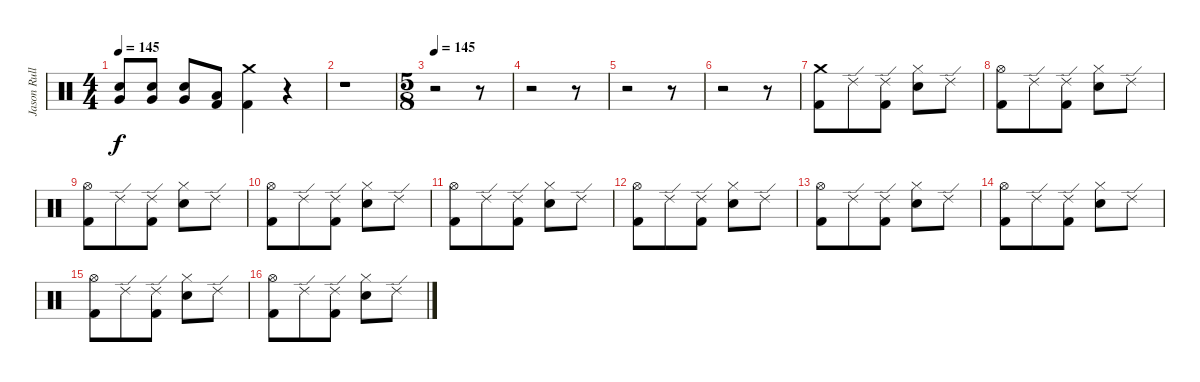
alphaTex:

\track ("Jason Rullo" "Jason Rull") {instrument percussion}
\staff {score}
\articulation defaults
\ts (4 4)
\tempo 145
\clef neutral
\ks c
("Very Low Tom (hit)" "Electric Snare (hit)").8{dy f} ("Very Low Tom (hit)" "Electric Snare (hit)").8 ("Very Low Tom (hit)" "Electric Snare (hit)").8 ("Low Floor Tom (hit)" "Kick (hit) 2").8 ("Crash medium (hit)" "Kick (hit) 2").4 r.4 |
r.1 |
\ts (5 8)
\tempo 145
r.2 r.8 |
r.2 r.8 |
r.2 r.8 |
r.2 r.8 |
("Crash medium (hit)" "Kick (hit) 2").8 "Ride (edge) 2".8 ("Ride (edge) 2" "Kick (hit) 2").8 ("Hi-Hat (closed)" "Electric Snare (hit)").8 "Ride (edge) 2".8 |
("Hi-Hat (open)" "Kick (hit) 2").8 "Ride (edge) 2".8 ("Ride (edge) 2" "Kick (hit) 2").8 ("Hi-Hat (closed)" "Electric Snare (hit)").8 "Ride (edge) 2".8 |
("Hi-Hat (open)" "Kick (hit) 2").8 "Ride (edge) 2".8 ("Ride (edge) 2" "Kick (hit) 2").8 ("Hi-Hat (closed)" "Electric Snare (hit)").8 "Ride (edge) 2".8 |
("Hi-Hat (open)" "Kick (hit) 2").8 "Ride (edge) 2".8 ("Ride (edge) 2" "Kick (hit) 2").8 ("Hi-Hat (closed)" "Electric Snare (hit)").8 "Ride (edge) 2".8 |
("Hi-Hat (open)" "Kick (hit) 2").8 "Ride (edge) 2".8 ("Ride (edge) 2" "Kick (hit) 2").8 ("Hi-Hat (closed)" "Electric Snare (hit)").8 "Ride (edge) 2".8 |
("Hi-Hat (open)" "Kick (hit) 2").8 "Ride (edge) 2".8 ("Ride (edge) 2" "Kick (hit) 2").8 ("Hi-Hat (closed)" "Electric Snare (hit)").8 "Ride (edge) 2".8 |
("Hi-Hat (open)" "Kick (hit) 2").8 "Ride (edge) 2".8 ("Ride (edge) 2" "Kick (hit) 2").8 ("Hi-Hat (closed)" "Electric Snare (hit)").8 "Ride (edge) 2".8 |
("Hi-Hat (open)" "Kick (hit) 2").8 "Ride (edge) 2".8 ("Ride (edge) 2" "Kick (hit) 2").8 ("Hi-Hat (closed)" "Electric Snare (hit)").8 "Ride (edge) 2".8 |
("Hi-Hat (open)" "Kick (hit) 2").8 "Ride (edge) 2".8 ("Ride (edge) 2" "Kick (hit) 2").8 ("Hi-Hat (closed)" "Electric Snare (hit)").8 "Ride (edge) 2".8 |
("Hi-Hat (open)" "Kick (hit) 2").8 "Ride (edge) 2".8 ("Ride (edge) 2" "Kick (hit) 2").8 ("Hi-Hat (closed)" "Electric Snare (hit)").8 "Ride (edge) 2".8
